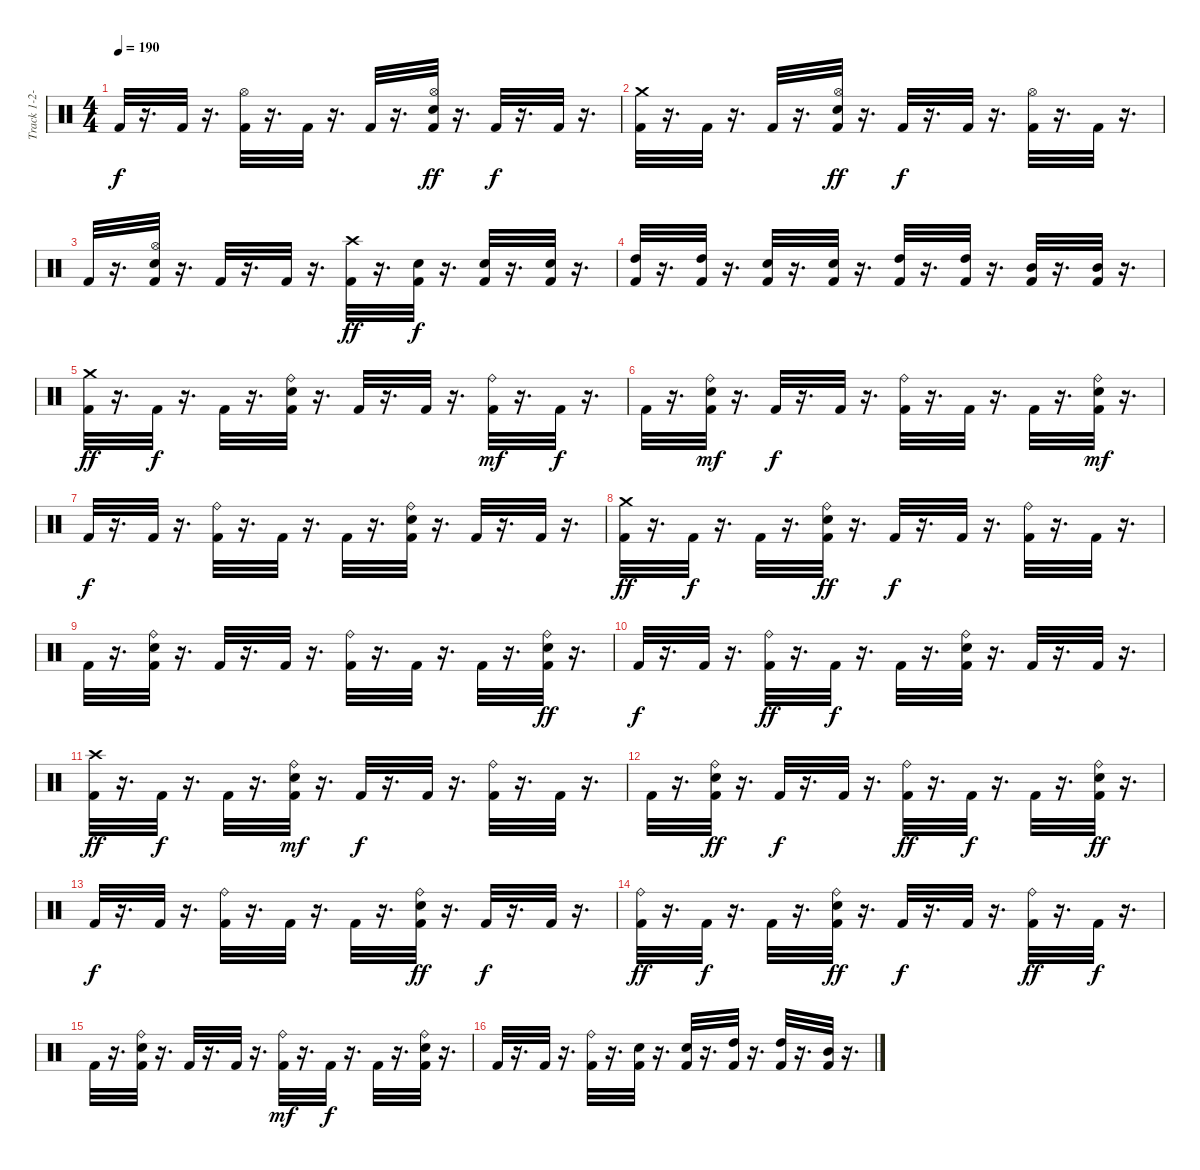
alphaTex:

\track ("Track 1-2-3-4-5-6-7-8" "Track 1-2-") {instrument percussion}
\staff {score}
\articulation defaults
\ts (4 4)
\tempo 190
\clef neutral
\ks c "Kick (hit) 2".32{dy f}
r.16{d} "Kick (hit) 2".32 r.16{d} ("Hi-Hat (open)" "Kick (hit) 2").32 r.16{d} "Kick (hit) 2".32 r.16{d} "Kick (hit) 2".32 r.16{d} ("Hi-Hat (open)" "Kick (hit) 2" "Electric Snare (hit)").32{dy ff} r.16{d} "Kick (hit) 2".32{dy f} r.16{d} "Kick (hit) 2".32 r.16{d} |
("Crash medium (hit)" "Kick (hit) 2").32 r.16{d} "Kick (hit) 2".32 r.16{d} "Kick (hit) 2".32 r.16{d} ("Hi-Hat (open)" "Kick (hit) 2" "Electric Snare (hit)").32{dy ff} r.16{d} "Kick (hit) 2".32{dy f} r.16{d} "Kick (hit) 2".32 r.16{d} ("Hi-Hat (open)" "Kick (hit) 2").32 r.16{d} "Kick (hit) 2".32 r.16{d} |
"Kick (hit) 2".32 r.16{d} ("Hi-Hat (open)" "Kick (hit) 2" "Electric Snare (hit)").32 r.16{d} "Kick (hit) 2".32 r.16{d} "Kick (hit) 2".32 r.16{d} ("Crash high (hit)" "Kick (hit) 2").32{dy ff} r.16{d} ("Kick (hit) 2" "Electric Snare (hit)").32{dy f} r.16{d} ("Kick (hit) 2" "Electric Snare (hit)").32 r.16{d} ("Kick (hit) 2" "Electric Snare (hit)").32 r.16{d} |
("Kick (hit) 2" "High Tom (hit)").32 r.16{d} ("Kick (hit) 2" "High Tom (hit)").32 r.16{d} ("Kick (hit) 2" "Electric Snare (hit)").32 r.16{d} ("Kick (hit) 2" "Electric Snare (hit)").32 r.16{d} ("Kick (hit) 2" "High Tom (hit)").32 r.16{d} ("Kick (hit) 2" "High Tom (hit)").32 r.16{d} ("Kick (hit) 2" "Mid Tom (hit)").32 r.16{d} ("Kick (hit) 2" "Mid Tom (hit)").32 r.16{d} |
("Crash medium (hit)" "Kick (hit) 2").32{dy ff} r.16{d} "Kick (hit) 2".32{dy f} r.16{d} "Kick (hit) 2".32 r.16{d} ("Ride (bell)" "Kick (hit) 2" "Electric Snare (hit)").32 r.16{d} "Kick (hit) 2".32 r.16{d} "Kick (hit) 2".32 r.16{d} ("Ride (bell)" "Kick (hit) 2").32{dy mf} r.16{d} "Kick (hit) 2".32{dy f} r.16{d} |
"Kick (hit) 2".32 r.16{d} ("Ride (bell)" "Kick (hit) 2" "Electric Snare (hit)").32{dy mf} r.16{d} "Kick (hit) 2".32{dy f} r.16{d} "Kick (hit) 2".32 r.16{d} ("Ride (bell)" "Kick (hit) 2").32 r.16{d} "Kick (hit) 2".32 r.16{d} "Kick (hit) 2".32 r.16{d} ("Ride (bell)" "Kick (hit) 2" "Electric Snare (hit)").32{dy mf} r.16{d} |
"Kick (hit) 2".32{dy f} r.16{d} "Kick (hit) 2".32 r.16{d} ("Ride (bell)" "Kick (hit) 2").32 r.16{d} "Kick (hit) 2".32 r.16{d} "Kick (hit) 2".32 r.16{d} ("Ride (bell)" "Kick (hit) 2" "Electric Snare (hit)").32 r.16{d} "Kick (hit) 2".32 r.16{d} "Kick (hit) 2".32 r.16{d} |
("Crash medium (hit)" "Kick (hit) 2").32{dy ff} r.16{d} "Kick (hit) 2".32{dy f} r.16{d} "Kick (hit) 2".32 r.16{d} ("Ride (bell)" "Kick (hit) 2" "Electric Snare (hit)").32{dy ff} r.16{d} "Kick (hit) 2".32{dy f} r.16{d} "Kick (hit) 2".32 r.16{d} ("Ride (bell)" "Kick (hit) 2").32 r.16{d} "Kick (hit) 2".32 r.16{d} |
"Kick (hit) 2".32 r.16{d} ("Ride (bell)" "Kick (hit) 2" "Electric Snare (hit)").32 r.16{d} "Kick (hit) 2".32 r.16{d} "Kick (hit) 2".32 r.16{d} ("Ride (bell)" "Kick (hit) 2").32 r.16{d} "Kick (hit) 2".32 r.16{d} "Kick (hit) 2".32 r.16{d} ("Ride (bell)" "Kick (hit) 2" "Electric Snare (hit)").32{dy ff} r.16{d} |
"Kick (hit) 2".32{dy f} r.16{d} "Kick (hit) 2".32 r.16{d} ("Ride (bell)" "Kick (hit) 2").32{dy ff} r.16{d} "Kick (hit) 2".32{dy f} r.16{d} "Kick (hit) 2".32 r.16{d} ("Ride (bell)" "Kick (hit) 2" "Electric Snare (hit)").32 r.16{d} "Kick (hit) 2".32 r.16{d} "Kick (hit) 2".32 r.16{d} |
("Crash high (hit)" "Kick (hit) 2").32{dy ff} r.16{d} "Kick (hit) 2".32{dy f} r.16{d} "Kick (hit) 2".32 r.16{d} ("Ride (bell)" "Kick (hit) 2" "Electric Snare (hit)").32{dy mf} r.16{d} "Kick (hit) 2".32{dy f} r.16{d} "Kick (hit) 2".32 r.16{d} ("Ride (bell)" "Kick (hit) 2").32 r.16{d} "Kick (hit) 2".32 r.16{d} |
"Kick (hit) 2".32 r.16{d} ("Ride (bell)" "Kick (hit) 2" "Electric Snare (hit)").32{dy ff} r.16{d} "Kick (hit) 2".32{dy f} r.16{d} "Kick (hit) 2".32 r.16{d} ("Ride (bell)" "Kick (hit) 2").32{dy ff} r.16{d} "Kick (hit) 2".32{dy f} r.16{d} "Kick (hit) 2".32 r.16{d} ("Ride (bell)" "Kick (hit) 2" "Electric Snare (hit)").32{dy ff} r.16{d} |
"Kick (hit) 2".32{dy f} r.16{d} "Kick (hit) 2".32 r.16{d} ("Ride (bell)" "Kick (hit) 2").32 r.16{d} "Kick (hit) 2".32 r.16{d} "Kick (hit) 2".32 r.16{d} ("Ride (bell)" "Kick (hit) 2" "Electric Snare (hit)").32{dy ff} r.16{d} "Kick (hit) 2".32{dy f} r.16{d} "Kick (hit) 2".32 r.16{d} |
("Ride (bell)" "Kick (hit) 2").32{dy ff} r.16{d} "Kick (hit) 2".32{dy f} r.16{d} "Kick (hit) 2".32 r.16{d} ("Ride (bell)" "Kick (hit) 2" "Electric Snare (hit)").32{dy ff} r.16{d} "Kick (hit) 2".32{dy f} r.16{d} "Kick (hit) 2".32 r.16{d} ("Ride (bell)" "Kick (hit) 2").32{dy ff} r.16{d} "Kick (hit) 2".32{dy f} r.16{d} |
"Kick (hit) 2".32 r.16{d} ("Ride (bell)" "Kick (hit) 2" "Electric Snare (hit)").32 r.16{d} "Kick (hit) 2".32 r.16{d} "Kick (hit) 2".32 r.16{d} ("Ride (bell)" "Kick (hit) 2").32{dy mf} r.16{d} "Kick (hit) 2".32{dy f} r.16{d} "Kick (hit) 2".32 r.16{d} ("Ride (bell)" "Kick (hit) 2" "Electric Snare (hit)").32 r.16{d} |
"Kick (hit) 2".32 r.16{d} "Kick (hit) 2".32 r.16{d} ("Ride (bell)" "Kick (hit) 2").32 r.16{d} ("Kick (hit) 2" "Electric Snare (hit)").32 r.16{d} ("Kick (hit) 2" "Electric Snare (hit)").32 r.16{d} ("Kick (hit) 2" "High Tom (hit)").32 r.16{d} ("Kick (hit) 2" "High Tom (hit)").32 r.16{d} ("Kick (hit) 2" "Mid Tom (hit)").32 r.16{d}
